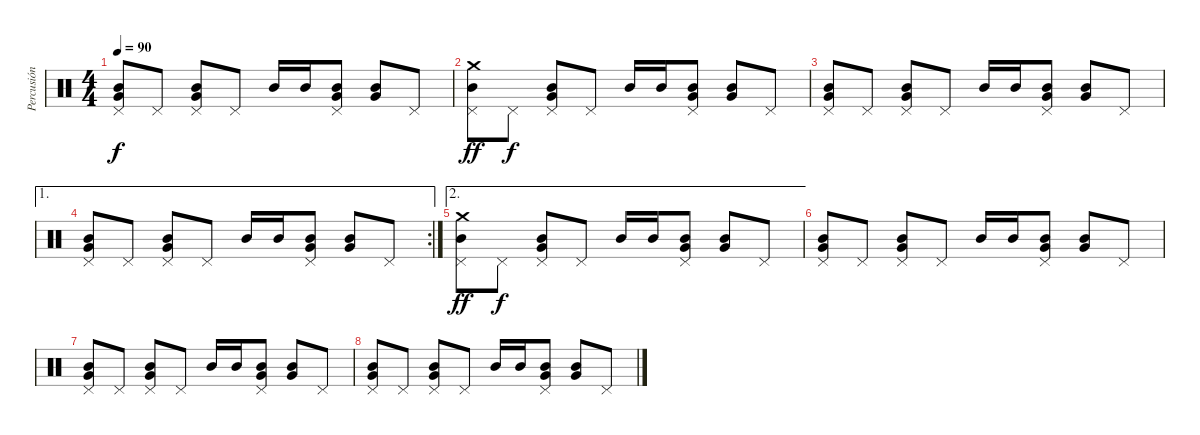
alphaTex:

\track ("Percusión" "Percusión") {instrument percussion}
\staff {score}
\articulation defaults
\ts (4 4)
\tempo 90
\clef neutral
\ks c
("Pedal Hi-Hat (hit)" "Very Low Tom (hit)" "Mid Tom (hit)").8{dy f} "Pedal Hi-Hat (hit)".8 ("Pedal Hi-Hat (hit)" "Very Low Tom (hit)" "Mid Tom (hit)").8 "Pedal Hi-Hat (hit)".8 "Mid Tom (hit)".16 "Mid Tom (hit)".16 ("Pedal Hi-Hat (hit)" "Very Low Tom (hit)" "Mid Tom (hit)").8 ("Very Low Tom (hit)" "Mid Tom (hit)").8 "Pedal Hi-Hat (hit)".8 |
("Pedal Hi-Hat (hit)" "Mid Tom (hit)" "Crash medium (hit)").8{dy ff} "Pedal Hi-Hat (hit)".8{dy f} ("Pedal Hi-Hat (hit)" "Very Low Tom (hit)" "Mid Tom (hit)").8 "Pedal Hi-Hat (hit)".8 "Mid Tom (hit)".16 "Mid Tom (hit)".16 ("Pedal Hi-Hat (hit)" "Very Low Tom (hit)" "Mid Tom (hit)").8 ("Very Low Tom (hit)" "Mid Tom (hit)").8 "Pedal Hi-Hat (hit)".8 |
("Pedal Hi-Hat (hit)" "Very Low Tom (hit)" "Mid Tom (hit)").8 "Pedal Hi-Hat (hit)".8 ("Pedal Hi-Hat (hit)" "Very Low Tom (hit)" "Mid Tom (hit)").8 "Pedal Hi-Hat (hit)".8 "Mid Tom (hit)".16 "Mid Tom (hit)".16 ("Pedal Hi-Hat (hit)" "Very Low Tom (hit)" "Mid Tom (hit)").8 ("Very Low Tom (hit)" "Mid Tom (hit)").8 "Pedal Hi-Hat (hit)".8 |
\ae 1
\rc 2
("Pedal Hi-Hat (hit)" "Very Low Tom (hit)" "Mid Tom (hit)").8 "Pedal Hi-Hat (hit)".8 ("Pedal Hi-Hat (hit)" "Very Low Tom (hit)" "Mid Tom (hit)").8 "Pedal Hi-Hat (hit)".8 "Mid Tom (hit)".16 "Mid Tom (hit)".16 ("Pedal Hi-Hat (hit)" "Very Low Tom (hit)" "Mid Tom (hit)").8 ("Very Low Tom (hit)" "Mid Tom (hit)").8 "Pedal Hi-Hat (hit)".8 |
\ae 2
("Pedal Hi-Hat (hit)" "Mid Tom (hit)" "Crash medium (hit)").8{dy ff} "Pedal Hi-Hat (hit)".8{dy f} ("Pedal Hi-Hat (hit)" "Very Low Tom (hit)" "Mid Tom (hit)").8 "Pedal Hi-Hat (hit)".8 "Mid Tom (hit)".16 "Mid Tom (hit)".16 ("Pedal Hi-Hat (hit)" "Very Low Tom (hit)" "Mid Tom (hit)").8 ("Very Low Tom (hit)" "Mid Tom (hit)").8 "Pedal Hi-Hat (hit)".8 |
("Pedal Hi-Hat (hit)" "Very Low Tom (hit)" "Mid Tom (hit)").8 "Pedal Hi-Hat (hit)".8 ("Pedal Hi-Hat (hit)" "Very Low Tom (hit)" "Mid Tom (hit)").8 "Pedal Hi-Hat (hit)".8 "Mid Tom (hit)".16 "Mid Tom (hit)".16 ("Pedal Hi-Hat (hit)" "Very Low Tom (hit)" "Mid Tom (hit)").8 ("Very Low Tom (hit)" "Mid Tom (hit)").8 "Pedal Hi-Hat (hit)".8 |
("Pedal Hi-Hat (hit)" "Very Low Tom (hit)" "Mid Tom (hit)").8 "Pedal Hi-Hat (hit)".8 ("Pedal Hi-Hat (hit)" "Very Low Tom (hit)" "Mid Tom (hit)").8 "Pedal Hi-Hat (hit)".8 "Mid Tom (hit)".16 "Mid Tom (hit)".16 ("Pedal Hi-Hat (hit)" "Very Low Tom (hit)" "Mid Tom (hit)").8 ("Very Low Tom (hit)" "Mid Tom (hit)").8 "Pedal Hi-Hat (hit)".8 |
("Pedal Hi-Hat (hit)" "Very Low Tom (hit)" "Mid Tom (hit)").8 "Pedal Hi-Hat (hit)".8 ("Pedal Hi-Hat (hit)" "Very Low Tom (hit)" "Mid Tom (hit)").8 "Pedal Hi-Hat (hit)".8 "Mid Tom (hit)".16 "Mid Tom (hit)".16 ("Pedal Hi-Hat (hit)" "Very Low Tom (hit)" "Mid Tom (hit)").8 ("Very Low Tom (hit)" "Mid Tom (hit)").8 "Pedal Hi-Hat (hit)".8
